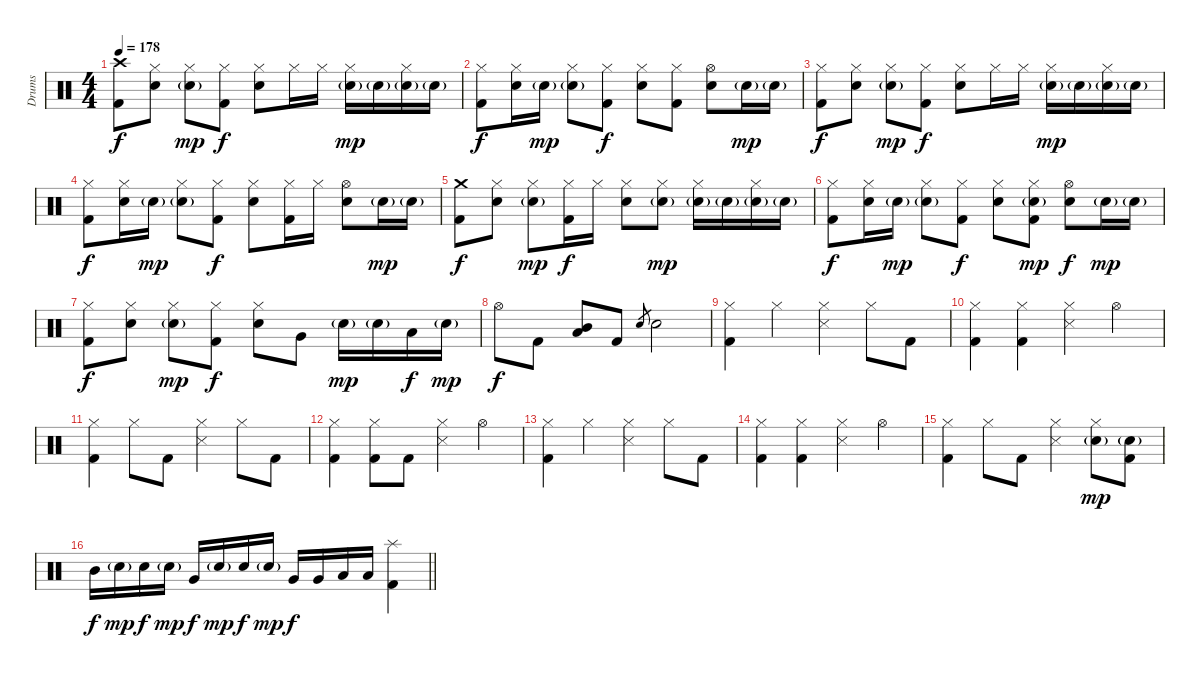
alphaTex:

\track ("Drums" "Drums") {instrument percussion}
\staff {score}
\articulation defaults
\ts (4 4)
\tempo 178
\clef neutral
\ks c
("Crash high (hit)" "Kick (hit) 2").8{dy f} ("Hi-Hat (closed)" "Snare (hit) 2").8 ("Hi-Hat (closed)" "Snare (hit) 2"{g}).8{dy mp} ("Hi-Hat (closed)" "Kick (hit) 2").8{dy f} ("Hi-Hat (closed)" "Snare (hit) 2").8 "Hi-Hat (closed)".16 "Hi-Hat (closed)".16 ("Hi-Hat (closed)" "Snare (hit) 2"{g}).16{dy mp} "Snare (hit) 2"{g}.16 ("Hi-Hat (closed)" "Snare (hit) 2"{g}).16 "Snare (hit) 2"{g}.16 |
("Hi-Hat (closed)" "Kick (hit) 2").8{dy f} ("Hi-Hat (closed)" "Snare (hit) 2").16 "Snare (hit) 2"{g}.16{dy mp} ("Hi-Hat (closed)" "Snare (hit) 2"{g}).8 ("Hi-Hat (closed)" "Kick (hit) 2").8{dy f} ("Hi-Hat (closed)" "Snare (hit) 2").8 ("Hi-Hat (closed)" "Kick (hit) 2").8 ("Hi-Hat (open)" "Snare (hit) 2").8 "Snare (hit) 2"{g}.16{dy mp} "Snare (hit) 2"{g}.16 |
("Hi-Hat (closed)" "Kick (hit) 2").8{dy f} ("Hi-Hat (closed)" "Snare (hit) 2").8 ("Hi-Hat (closed)" "Snare (hit) 2"{g}).8{dy mp} ("Hi-Hat (closed)" "Kick (hit) 2").8{dy f} ("Hi-Hat (closed)" "Snare (hit) 2").8 "Hi-Hat (closed)".16 "Hi-Hat (closed)".16 ("Hi-Hat (closed)" "Snare (hit) 2"{g}).16{dy mp} "Snare (hit) 2"{g}.16 ("Hi-Hat (closed)" "Snare (hit) 2"{g}).16 "Snare (hit) 2"{g}.16 |
("Hi-Hat (closed)" "Kick (hit) 2").8{dy f} ("Hi-Hat (closed)" "Snare (hit) 2").16 "Snare (hit) 2"{g}.16{dy mp} ("Hi-Hat (closed)" "Snare (hit) 2"{g}).8 ("Hi-Hat (closed)" "Kick (hit) 2").8{dy f} ("Hi-Hat (closed)" "Snare (hit) 2").8 ("Hi-Hat (closed)" "Kick (hit) 2").16 "Hi-Hat (closed)".16 ("Hi-Hat (open)" "Snare (hit) 2").8 "Snare (hit) 2"{g}.16{dy mp} "Snare (hit) 2"{g}.16 |
("Crash medium (hit)" "Kick (hit) 2").8{dy f} ("Hi-Hat (closed)" "Snare (hit) 2").8 ("Hi-Hat (closed)" "Snare (hit) 2"{g}).8{dy mp} ("Hi-Hat (closed)" "Kick (hit) 2").16{dy f} "Hi-Hat (closed)".16 ("Hi-Hat (closed)" "Snare (hit) 2").8 ("Hi-Hat (closed)" "Snare (hit) 2"{g}).8{dy mp} ("Hi-Hat (closed)" "Snare (hit) 2"{g}).16 "Snare (hit) 2"{g}.16 ("Hi-Hat (closed)" "Snare (hit) 2"{g}).16 "Snare (hit) 2"{g}.16 |
("Hi-Hat (closed)" "Kick (hit) 2").8{dy f} ("Hi-Hat (closed)" "Snare (hit) 2").16 "Snare (hit) 2"{g}.16{dy mp} ("Hi-Hat (closed)" "Snare (hit) 2"{g}).8 ("Hi-Hat (closed)" "Kick (hit) 2").8{dy f} ("Hi-Hat (closed)" "Snare (hit) 2").8 ("Hi-Hat (closed)" "Snare (hit) 2"{g} "Kick (hit) 2").8{dy mp} ("Hi-Hat (open)" "Snare (hit) 2").8{dy f} "Snare (hit) 2"{g}.16{dy mp} "Snare (hit) 2"{g}.16 |
("Hi-Hat (closed)" "Kick (hit) 2").8{dy f} ("Hi-Hat (closed)" "Snare (hit) 2").8 ("Hi-Hat (closed)" "Snare (hit) 2"{g}).8{dy mp} ("Hi-Hat (closed)" "Kick (hit) 2").8{dy f} ("Hi-Hat (closed)" "Snare (hit) 2").8 "Very Low Tom (hit)".8 "Snare (hit) 2"{g}.16{dy mp} "Snare (hit) 2"{g}.16 "Low Floor Tom (hit)".16{dy f} "Snare (hit) 2"{g}.16{dy mp} |
"Hi-Hat (open)".8{dy f} "Kick (hit) 2".8 ("Mid Tom (hit)" "Low Tom (hit)").8 "Kick (hit) 2".8 "Snare (hit) 2".8{gr} "Snare (hit) 2".2 |
("Hi-Hat (closed)" "Kick (hit) 2").4 "Hi-Hat (closed)".4 ("Hi-Hat (closed)" "Snare (side stick) 3").4 "Hi-Hat (closed)".8 "Kick (hit) 2".8 |
("Hi-Hat (closed)" "Kick (hit) 2").4 ("Hi-Hat (closed)" "Kick (hit) 2").4 ("Hi-Hat (closed)" "Snare (side stick) 3").4 "Hi-Hat (open)".4 |
("Hi-Hat (closed)" "Kick (hit) 2").4 "Hi-Hat (closed)".8 "Kick (hit) 2".8 ("Hi-Hat (closed)" "Snare (side stick) 3").4 "Hi-Hat (closed)".8 "Kick (hit) 2".8 |
("Hi-Hat (closed)" "Kick (hit) 2").4 ("Hi-Hat (closed)" "Kick (hit) 2").8 "Kick (hit) 2".8 ("Hi-Hat (closed)" "Snare (side stick) 3").4 "Hi-Hat (open)".4 |
("Hi-Hat (closed)" "Kick (hit) 2").4 "Hi-Hat (closed)".4 ("Hi-Hat (closed)" "Snare (side stick) 3").4 "Hi-Hat (closed)".8 "Kick (hit) 2".8 |
("Hi-Hat (closed)" "Kick (hit) 2").4 ("Hi-Hat (closed)" "Kick (hit) 2").4 ("Hi-Hat (closed)" "Snare (side stick) 3").4 "Hi-Hat (open)".4 |
("Hi-Hat (closed)" "Kick (hit) 2").4 "Hi-Hat (closed)".8 "Kick (hit) 2".8 ("Hi-Hat (closed)" "Snare (side stick) 3").4 ("Hi-Hat (closed)" "Snare (hit) 2"{g}).8{dy mp} ("Snare (hit) 2"{g} "Kick (hit) 2").8 |
\barLineRight lightlight "Mid Tom (hit)".16{dy f} "Snare (hit) 2"{g}.16{dy mp} "Snare (hit) 2".16{dy f} "Snare (hit) 2"{g}.16{dy mp} "Very Low Tom (hit)".16{dy f} "Snare (hit) 2"{g}.16{dy mp} "Snare (hit) 2".16{dy f} "Snare (hit) 2"{g}.16{dy mp} "Very Low Tom (hit)".16{dy f} "Very Low Tom (hit)".16 "Low Floor Tom (hit)".16 "Low Floor Tom (hit)".16
("Splash (hit)" "Kick (hit) 2").4
